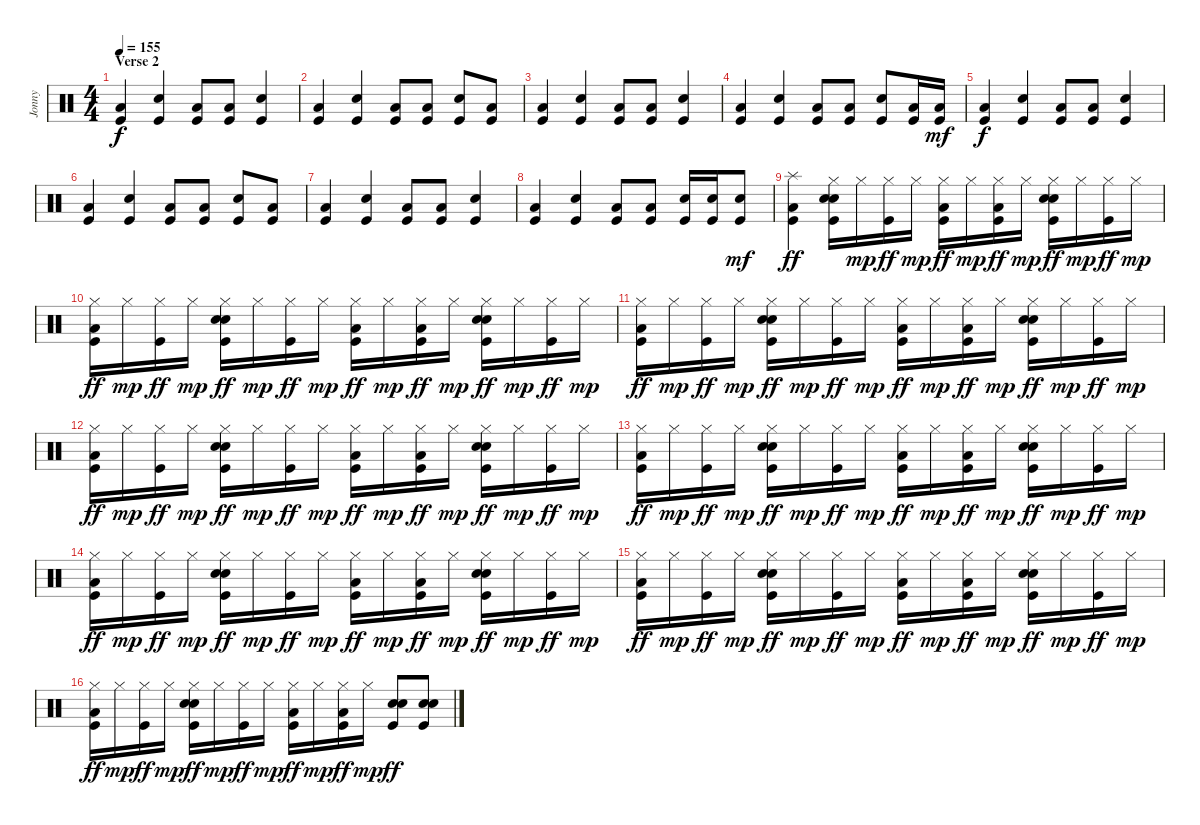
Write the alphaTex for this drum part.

\track ("Jonny" "Jonny") {instrument percussion}
\staff {score}
\articulation defaults
\ts (4 4)
\section ("" "Verse 2")
\tempo 155
\clef neutral
\ks c
("Low Floor Tom (hit)" "Kick (hit)").4{dy f} ("Electric Snare (hit)" "Kick (hit)").4 ("Low Floor Tom (hit)" "Kick (hit)").8 ("Low Floor Tom (hit)" "Kick (hit)").8 ("Electric Snare (hit)" "Kick (hit)").4 |
("Low Floor Tom (hit)" "Kick (hit)").4 ("Electric Snare (hit)" "Kick (hit)").4 ("Low Floor Tom (hit)" "Kick (hit)").8 ("Low Floor Tom (hit)" "Kick (hit)").8 ("Electric Snare (hit)" "Kick (hit)").8 ("Low Floor Tom (hit)" "Kick (hit)").8 |
("Low Floor Tom (hit)" "Kick (hit)").4 ("Electric Snare (hit)" "Kick (hit)").4 ("Low Floor Tom (hit)" "Kick (hit)").8 ("Low Floor Tom (hit)" "Kick (hit)").8 ("Electric Snare (hit)" "Kick (hit)").4 |
("Low Floor Tom (hit)" "Kick (hit)").4 ("Electric Snare (hit)" "Kick (hit)").4 ("Low Floor Tom (hit)" "Kick (hit)").8 ("Low Floor Tom (hit)" "Kick (hit)").8 ("Electric Snare (hit)" "Kick (hit)").8 ("Low Floor Tom (hit)" "Kick (hit)").16 ("Low Floor Tom (hit)" "Kick (hit)").16{dy mf} |
("Low Floor Tom (hit)" "Kick (hit)").4{dy f} ("Electric Snare (hit)" "Kick (hit)").4 ("Low Floor Tom (hit)" "Kick (hit)").8 ("Low Floor Tom (hit)" "Kick (hit)").8 ("Electric Snare (hit)" "Kick (hit)").4 |
("Low Floor Tom (hit)" "Kick (hit)").4 ("Electric Snare (hit)" "Kick (hit)").4 ("Low Floor Tom (hit)" "Kick (hit)").8 ("Low Floor Tom (hit)" "Kick (hit)").8 ("Electric Snare (hit)" "Kick (hit)").8 ("Low Floor Tom (hit)" "Kick (hit)").8 |
("Low Floor Tom (hit)" "Kick (hit)").4 ("Electric Snare (hit)" "Kick (hit)").4 ("Low Floor Tom (hit)" "Kick (hit)").8 ("Low Floor Tom (hit)" "Kick (hit)").8 ("Electric Snare (hit)" "Kick (hit)").4 |
("Low Floor Tom (hit)" "Kick (hit)").4 ("Electric Snare (hit)" "Kick (hit)").4 ("Low Floor Tom (hit)" "Kick (hit)").8 ("Low Floor Tom (hit)" "Kick (hit)").8 ("Electric Snare (hit)" "Kick (hit)").16 ("Electric Snare (hit)" "Kick (hit)").16 ("Electric Snare (hit)" "Kick (hit)").8{dy mf} |
("Splash (hit)" "Low Floor Tom (hit)" "Kick (hit)").4{dy ff} ("Hi-Hat (closed)" "Electric Snare (hit)" "Electric Snare (hit)" "Kick (hit)").16 "Hi-Hat (closed)".16{dy mp} ("Hi-Hat (closed)" "Kick (hit)").16{dy ff} "Hi-Hat (closed)".16{dy mp} ("Hi-Hat (closed)" "Low Floor Tom (hit)" "Kick (hit)").16{dy ff} "Hi-Hat (closed)".16{dy mp} ("Hi-Hat (closed)" "Low Floor Tom (hit)" "Kick (hit)").16{dy ff} "Hi-Hat (closed)".16{dy mp} ("Hi-Hat (closed)" "Electric Snare (hit)" "Electric Snare (hit)" "Kick (hit)").16{dy ff} "Hi-Hat (closed)".16{dy mp} ("Hi-Hat (closed)" "Kick (hit)").16{dy ff} "Hi-Hat (closed)".16{dy mp} |
("Hi-Hat (closed)" "Low Floor Tom (hit)" "Kick (hit)").16{dy ff} "Hi-Hat (closed)".16{dy mp} ("Hi-Hat (closed)" "Kick (hit)").16{dy ff} "Hi-Hat (closed)".16{dy mp} ("Hi-Hat (closed)" "Electric Snare (hit)" "Electric Snare (hit)" "Kick (hit)").16{dy ff} "Hi-Hat (closed)".16{dy mp} ("Hi-Hat (closed)" "Kick (hit)").16{dy ff} "Hi-Hat (closed)".16{dy mp} ("Hi-Hat (closed)" "Low Floor Tom (hit)" "Kick (hit)").16{dy ff} "Hi-Hat (closed)".16{dy mp} ("Hi-Hat (closed)" "Low Floor Tom (hit)" "Kick (hit)").16{dy ff} "Hi-Hat (closed)".16{dy mp} ("Hi-Hat (closed)" "Electric Snare (hit)" "Electric Snare (hit)" "Kick (hit)").16{dy ff} "Hi-Hat (closed)".16{dy mp} ("Hi-Hat (closed)" "Kick (hit)").16{dy ff} "Hi-Hat (closed)".16{dy mp} |
("Hi-Hat (closed)" "Low Floor Tom (hit)" "Kick (hit)").16{dy ff} "Hi-Hat (closed)".16{dy mp} ("Hi-Hat (closed)" "Kick (hit)").16{dy ff} "Hi-Hat (closed)".16{dy mp} ("Hi-Hat (closed)" "Electric Snare (hit)" "Electric Snare (hit)" "Kick (hit)").16{dy ff} "Hi-Hat (closed)".16{dy mp} ("Hi-Hat (closed)" "Kick (hit)").16{dy ff} "Hi-Hat (closed)".16{dy mp} ("Hi-Hat (closed)" "Low Floor Tom (hit)" "Kick (hit)").16{dy ff} "Hi-Hat (closed)".16{dy mp} ("Hi-Hat (closed)" "Low Floor Tom (hit)" "Kick (hit)").16{dy ff} "Hi-Hat (closed)".16{dy mp} ("Hi-Hat (closed)" "Electric Snare (hit)" "Electric Snare (hit)" "Kick (hit)").16{dy ff} "Hi-Hat (closed)".16{dy mp} ("Hi-Hat (closed)" "Kick (hit)").16{dy ff} "Hi-Hat (closed)".16{dy mp} |
("Hi-Hat (closed)" "Low Floor Tom (hit)" "Kick (hit)").16{dy ff} "Hi-Hat (closed)".16{dy mp} ("Hi-Hat (closed)" "Kick (hit)").16{dy ff} "Hi-Hat (closed)".16{dy mp} ("Hi-Hat (closed)" "Electric Snare (hit)" "Electric Snare (hit)" "Kick (hit)").16{dy ff} "Hi-Hat (closed)".16{dy mp} ("Hi-Hat (closed)" "Kick (hit)").16{dy ff} "Hi-Hat (closed)".16{dy mp} ("Hi-Hat (closed)" "Low Floor Tom (hit)" "Kick (hit)").16{dy ff} "Hi-Hat (closed)".16{dy mp} ("Hi-Hat (closed)" "Low Floor Tom (hit)" "Kick (hit)").16{dy ff} "Hi-Hat (closed)".16{dy mp} ("Hi-Hat (closed)" "Electric Snare (hit)" "Electric Snare (hit)" "Kick (hit)").16{dy ff} "Hi-Hat (closed)".16{dy mp} ("Hi-Hat (closed)" "Kick (hit)").16{dy ff} "Hi-Hat (closed)".16{dy mp} |
("Hi-Hat (closed)" "Low Floor Tom (hit)" "Kick (hit)").16{dy ff} "Hi-Hat (closed)".16{dy mp} ("Hi-Hat (closed)" "Kick (hit)").16{dy ff} "Hi-Hat (closed)".16{dy mp} ("Hi-Hat (closed)" "Electric Snare (hit)" "Electric Snare (hit)" "Kick (hit)").16{dy ff} "Hi-Hat (closed)".16{dy mp} ("Hi-Hat (closed)" "Kick (hit)").16{dy ff} "Hi-Hat (closed)".16{dy mp} ("Hi-Hat (closed)" "Low Floor Tom (hit)" "Kick (hit)").16{dy ff} "Hi-Hat (closed)".16{dy mp} ("Hi-Hat (closed)" "Low Floor Tom (hit)" "Kick (hit)").16{dy ff} "Hi-Hat (closed)".16{dy mp} ("Hi-Hat (closed)" "Electric Snare (hit)" "Electric Snare (hit)" "Kick (hit)").16{dy ff} "Hi-Hat (closed)".16{dy mp} ("Hi-Hat (closed)" "Kick (hit)").16{dy ff} "Hi-Hat (closed)".16{dy mp} |
("Hi-Hat (closed)" "Low Floor Tom (hit)" "Kick (hit)").16{dy ff} "Hi-Hat (closed)".16{dy mp} ("Hi-Hat (closed)" "Kick (hit)").16{dy ff} "Hi-Hat (closed)".16{dy mp} ("Hi-Hat (closed)" "Electric Snare (hit)" "Electric Snare (hit)" "Kick (hit)").16{dy ff} "Hi-Hat (closed)".16{dy mp} ("Hi-Hat (closed)" "Kick (hit)").16{dy ff} "Hi-Hat (closed)".16{dy mp} ("Hi-Hat (closed)" "Low Floor Tom (hit)" "Kick (hit)").16{dy ff} "Hi-Hat (closed)".16{dy mp} ("Hi-Hat (closed)" "Low Floor Tom (hit)" "Kick (hit)").16{dy ff} "Hi-Hat (closed)".16{dy mp} ("Hi-Hat (closed)" "Electric Snare (hit)" "Electric Snare (hit)" "Kick (hit)").16{dy ff} "Hi-Hat (closed)".16{dy mp} ("Hi-Hat (closed)" "Kick (hit)").16{dy ff} "Hi-Hat (closed)".16{dy mp} |
("Hi-Hat (closed)" "Low Floor Tom (hit)" "Kick (hit)").16{dy ff} "Hi-Hat (closed)".16{dy mp} ("Hi-Hat (closed)" "Kick (hit)").16{dy ff} "Hi-Hat (closed)".16{dy mp} ("Hi-Hat (closed)" "Electric Snare (hit)" "Electric Snare (hit)" "Kick (hit)").16{dy ff} "Hi-Hat (closed)".16{dy mp} ("Hi-Hat (closed)" "Kick (hit)").16{dy ff} "Hi-Hat (closed)".16{dy mp} ("Hi-Hat (closed)" "Low Floor Tom (hit)" "Kick (hit)").16{dy ff} "Hi-Hat (closed)".16{dy mp} ("Hi-Hat (closed)" "Low Floor Tom (hit)" "Kick (hit)").16{dy ff} "Hi-Hat (closed)".16{dy mp} ("Hi-Hat (closed)" "Electric Snare (hit)" "Electric Snare (hit)" "Kick (hit)").16{dy ff} "Hi-Hat (closed)".16{dy mp} ("Hi-Hat (closed)" "Kick (hit)").16{dy ff} "Hi-Hat (closed)".16{dy mp} |
("Hi-Hat (closed)" "Low Floor Tom (hit)" "Kick (hit)").16{dy ff} "Hi-Hat (closed)".16{dy mp} ("Hi-Hat (closed)" "Kick (hit)").16{dy ff} "Hi-Hat (closed)".16{dy mp} ("Hi-Hat (closed)" "Electric Snare (hit)" "Electric Snare (hit)" "Kick (hit)").16{dy ff} "Hi-Hat (closed)".16{dy mp} ("Hi-Hat (closed)" "Kick (hit)").16{dy ff} "Hi-Hat (closed)".16{dy mp} ("Hi-Hat (closed)" "Low Floor Tom (hit)" "Kick (hit)").16{dy ff} "Hi-Hat (closed)".16{dy mp} ("Hi-Hat (closed)" "Low Floor Tom (hit)" "Kick (hit)").16{dy ff} "Hi-Hat (closed)".16{dy mp} ("Electric Snare (hit)" "Electric Snare (hit)" "Kick (hit)").8{dy ff} ("Electric Snare (hit)" "Electric Snare (hit)" "Kick (hit)").8
